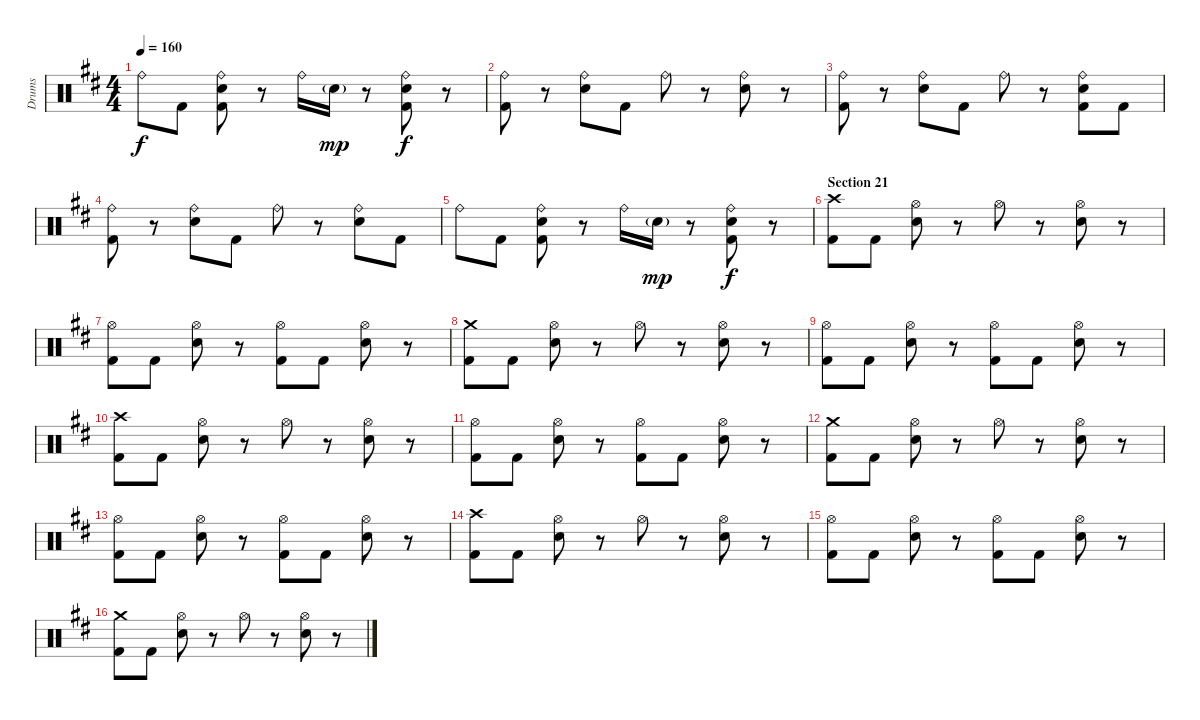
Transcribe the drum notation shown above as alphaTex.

\track ("Drums" "Drums") {instrument percussion}
\staff {score}
\articulation defaults
\ts (4 4)
\tempo 160
\clef neutral
\ks bminor "Ride (bell)".8{dy f} "Kick (hit) 2".8
("Ride (bell)" "Snare (hit) 2" "Kick (hit) 2").8 r.8 "Ride (bell)".16 "Snare (hit) 2"{g}.16{dy mp} r.8 ("Ride (bell)" "Snare (hit) 2" "Kick (hit) 2").8{dy f} r.8 |
("Ride (bell)" "Kick (hit) 2").8 r.8 ("Ride (bell)" "Snare (hit) 2").8 "Kick (hit) 2".8 "Ride (bell)".8 r.8 ("Ride (bell)" "Snare (hit) 2").8 r.8 |
("Ride (bell)" "Kick (hit) 2").8 r.8 ("Ride (bell)" "Snare (hit) 2").8 "Kick (hit) 2".8 "Ride (bell)".8 r.8 ("Ride (bell)" "Snare (hit) 2" "Kick (hit) 2").8 "Kick (hit) 2".8 |
("Ride (bell)" "Kick (hit) 2").8 r.8 ("Ride (bell)" "Snare (hit) 2").8 "Kick (hit) 2".8 "Ride (bell)".8 r.8 ("Ride (bell)" "Snare (hit) 2").8 "Kick (hit) 2".8 |
"Ride (bell)".8 "Kick (hit) 2".8 ("Ride (bell)" "Snare (hit) 2" "Kick (hit) 2").8 r.8 "Ride (bell)".16 "Snare (hit) 2"{g}.16{dy mp} r.8 ("Ride (bell)" "Snare (hit) 2" "Kick (hit) 2").8{dy f} r.8 |
\section ("" "Section 21")
("Crash high (hit)" "Kick (hit) 2").8 "Kick (hit) 2".8 ("Hi-Hat (open)" "Snare (hit) 2").8 r.8 "Hi-Hat (open)".8 r.8 ("Hi-Hat (open)" "Snare (hit) 2").8 r.8 |
("Hi-Hat (open)" "Kick (hit) 2").8 "Kick (hit) 2".8 ("Hi-Hat (open)" "Snare (hit) 2").8 r.8 ("Hi-Hat (open)" "Kick (hit) 2").8 "Kick (hit) 2".8 ("Hi-Hat (open)" "Snare (hit) 2").8 r.8 |
("Crash medium (hit)" "Kick (hit) 2").8 "Kick (hit) 2".8 ("Hi-Hat (open)" "Snare (hit) 2").8 r.8 "Hi-Hat (open)".8 r.8 ("Hi-Hat (open)" "Snare (hit) 2").8 r.8 |
("Hi-Hat (open)" "Kick (hit) 2").8 "Kick (hit) 2".8 ("Hi-Hat (open)" "Snare (hit) 2").8 r.8 ("Hi-Hat (open)" "Kick (hit) 2").8 "Kick (hit) 2".8 ("Hi-Hat (open)" "Snare (hit) 2").8 r.8 |
("Crash high (hit)" "Kick (hit) 2").8 "Kick (hit) 2".8 ("Hi-Hat (open)" "Snare (hit) 2").8 r.8 "Hi-Hat (open)".8 r.8 ("Hi-Hat (open)" "Snare (hit) 2").8 r.8 |
("Hi-Hat (open)" "Kick (hit) 2").8 "Kick (hit) 2".8 ("Hi-Hat (open)" "Snare (hit) 2").8 r.8 ("Hi-Hat (open)" "Kick (hit) 2").8 "Kick (hit) 2".8 ("Hi-Hat (open)" "Snare (hit) 2").8 r.8 |
("Crash medium (hit)" "Kick (hit) 2").8 "Kick (hit) 2".8 ("Hi-Hat (open)" "Snare (hit) 2").8 r.8 "Hi-Hat (open)".8 r.8 ("Hi-Hat (open)" "Snare (hit) 2").8 r.8 |
("Hi-Hat (open)" "Kick (hit) 2").8 "Kick (hit) 2".8 ("Hi-Hat (open)" "Snare (hit) 2").8 r.8 ("Hi-Hat (open)" "Kick (hit) 2").8 "Kick (hit) 2".8 ("Hi-Hat (open)" "Snare (hit) 2").8 r.8 |
("Crash high (hit)" "Kick (hit) 2").8 "Kick (hit) 2".8 ("Hi-Hat (open)" "Snare (hit) 2").8 r.8 "Hi-Hat (open)".8 r.8 ("Hi-Hat (open)" "Snare (hit) 2").8 r.8 |
("Hi-Hat (open)" "Kick (hit) 2").8 "Kick (hit) 2".8 ("Hi-Hat (open)" "Snare (hit) 2").8 r.8 ("Hi-Hat (open)" "Kick (hit) 2").8 "Kick (hit) 2".8 ("Hi-Hat (open)" "Snare (hit) 2").8 r.8 |
("Crash medium (hit)" "Kick (hit) 2").8 "Kick (hit) 2".8 ("Hi-Hat (open)" "Snare (hit) 2").8 r.8 "Hi-Hat (open)".8 r.8 ("Hi-Hat (open)" "Snare (hit) 2").8 r.8
